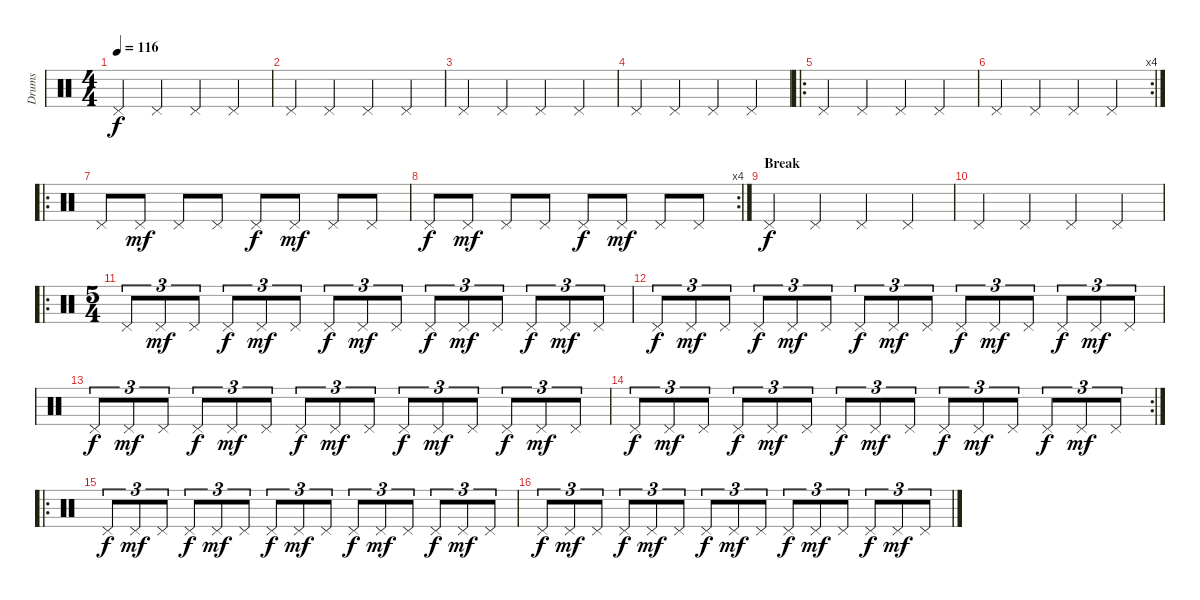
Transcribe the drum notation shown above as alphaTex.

\track ("Drums" "Drums") {instrument percussion}
\staff {score}
\articulation defaults
\ts (4 4)
\tempo 116
\clef neutral
\ks c "Pedal Hi-Hat (hit)".4{dy f} "Pedal Hi-Hat (hit)".4 "Pedal Hi-Hat (hit)".4 "Pedal Hi-Hat (hit)".4
|
"Pedal Hi-Hat (hit)".4 "Pedal Hi-Hat (hit)".4 "Pedal Hi-Hat (hit)".4 "Pedal Hi-Hat (hit)".4 |
"Pedal Hi-Hat (hit)".4 "Pedal Hi-Hat (hit)".4 "Pedal Hi-Hat (hit)".4 "Pedal Hi-Hat (hit)".4 |
"Pedal Hi-Hat (hit)".4 "Pedal Hi-Hat (hit)".4 "Pedal Hi-Hat (hit)".4 "Pedal Hi-Hat (hit)".4 |
\ro "Pedal Hi-Hat (hit)".4 "Pedal Hi-Hat (hit)".4 "Pedal Hi-Hat (hit)".4 "Pedal Hi-Hat (hit)".4
|
\rc 4 "Pedal Hi-Hat (hit)".4 "Pedal Hi-Hat (hit)".4 "Pedal Hi-Hat (hit)".4 "Pedal Hi-Hat (hit)".4
|
\ro "Pedal Hi-Hat (hit)".8 "Pedal Hi-Hat (hit)".8{dy mf} "Pedal Hi-Hat (hit)".8 "Pedal Hi-Hat (hit)".8 "Pedal Hi-Hat (hit)".8{dy f} "Pedal Hi-Hat (hit)".8{dy mf} "Pedal Hi-Hat (hit)".8 "Pedal Hi-Hat (hit)".8
|
\rc 4 "Pedal Hi-Hat (hit)".8{dy f} "Pedal Hi-Hat (hit)".8{dy mf} "Pedal Hi-Hat (hit)".8 "Pedal Hi-Hat (hit)".8 "Pedal Hi-Hat (hit)".8{dy f} "Pedal Hi-Hat (hit)".8{dy mf} "Pedal Hi-Hat (hit)".8 "Pedal Hi-Hat (hit)".8
|
\section ("" "Break ")
"Pedal Hi-Hat (hit)".4{dy f} "Pedal Hi-Hat (hit)".4 "Pedal Hi-Hat (hit)".4 "Pedal Hi-Hat (hit)".4 |
"Pedal Hi-Hat (hit)".4 "Pedal Hi-Hat (hit)".4 "Pedal Hi-Hat (hit)".4 "Pedal Hi-Hat (hit)".4 |
\ro
\ts (5 4)
"Pedal Hi-Hat (hit)".8{tu (3 2)} "Pedal Hi-Hat (hit)".8{tu (3 2) dy mf} "Pedal Hi-Hat (hit)".8{tu (3 2)} "Pedal Hi-Hat (hit)".8{tu (3 2) dy f} "Pedal Hi-Hat (hit)".8{tu (3 2) dy mf} "Pedal Hi-Hat (hit)".8{tu (3 2)} "Pedal Hi-Hat (hit)".8{tu (3 2) dy f} "Pedal Hi-Hat (hit)".8{tu (3 2) dy mf} "Pedal Hi-Hat (hit)".8{tu (3 2)} "Pedal Hi-Hat (hit)".8{tu (3 2) dy f} "Pedal Hi-Hat (hit)".8{tu (3 2) dy mf} "Pedal Hi-Hat (hit)".8{tu (3 2)} "Pedal Hi-Hat (hit)".8{tu (3 2) dy f} "Pedal Hi-Hat (hit)".8{tu (3 2) dy mf} "Pedal Hi-Hat (hit)".8{tu (3 2)} |
"Pedal Hi-Hat (hit)".8{tu (3 2) dy f} "Pedal Hi-Hat (hit)".8{tu (3 2) dy mf} "Pedal Hi-Hat (hit)".8{tu (3 2)} "Pedal Hi-Hat (hit)".8{tu (3 2) dy f} "Pedal Hi-Hat (hit)".8{tu (3 2) dy mf} "Pedal Hi-Hat (hit)".8{tu (3 2)} "Pedal Hi-Hat (hit)".8{tu (3 2) dy f} "Pedal Hi-Hat (hit)".8{tu (3 2) dy mf} "Pedal Hi-Hat (hit)".8{tu (3 2)} "Pedal Hi-Hat (hit)".8{tu (3 2) dy f} "Pedal Hi-Hat (hit)".8{tu (3 2) dy mf} "Pedal Hi-Hat (hit)".8{tu (3 2)} "Pedal Hi-Hat (hit)".8{tu (3 2) dy f} "Pedal Hi-Hat (hit)".8{tu (3 2) dy mf} "Pedal Hi-Hat (hit)".8{tu (3 2)} |
"Pedal Hi-Hat (hit)".8{tu (3 2) dy f} "Pedal Hi-Hat (hit)".8{tu (3 2) dy mf} "Pedal Hi-Hat (hit)".8{tu (3 2)} "Pedal Hi-Hat (hit)".8{tu (3 2) dy f} "Pedal Hi-Hat (hit)".8{tu (3 2) dy mf} "Pedal Hi-Hat (hit)".8{tu (3 2)} "Pedal Hi-Hat (hit)".8{tu (3 2) dy f} "Pedal Hi-Hat (hit)".8{tu (3 2) dy mf} "Pedal Hi-Hat (hit)".8{tu (3 2)} "Pedal Hi-Hat (hit)".8{tu (3 2) dy f} "Pedal Hi-Hat (hit)".8{tu (3 2) dy mf} "Pedal Hi-Hat (hit)".8{tu (3 2)} "Pedal Hi-Hat (hit)".8{tu (3 2) dy f} "Pedal Hi-Hat (hit)".8{tu (3 2) dy mf} "Pedal Hi-Hat (hit)".8{tu (3 2)} |
\rc 2 "Pedal Hi-Hat (hit)".8{tu (3 2) dy f} "Pedal Hi-Hat (hit)".8{tu (3 2) dy mf} "Pedal Hi-Hat (hit)".8{tu (3 2)} "Pedal Hi-Hat (hit)".8{tu (3 2) dy f} "Pedal Hi-Hat (hit)".8{tu (3 2) dy mf} "Pedal Hi-Hat (hit)".8{tu (3 2)} "Pedal Hi-Hat (hit)".8{tu (3 2) dy f} "Pedal Hi-Hat (hit)".8{tu (3 2) dy mf} "Pedal Hi-Hat (hit)".8{tu (3 2)} "Pedal Hi-Hat (hit)".8{tu (3 2) dy f} "Pedal Hi-Hat (hit)".8{tu (3 2) dy mf} "Pedal Hi-Hat (hit)".8{tu (3 2)} "Pedal Hi-Hat (hit)".8{tu (3 2) dy f} "Pedal Hi-Hat (hit)".8{tu (3 2) dy mf} "Pedal Hi-Hat (hit)".8{tu (3 2)}
|
\ro "Pedal Hi-Hat (hit)".8{tu (3 2) dy f} "Pedal Hi-Hat (hit)".8{tu (3 2) dy mf} "Pedal Hi-Hat (hit)".8{tu (3 2)} "Pedal Hi-Hat (hit)".8{tu (3 2) dy f} "Pedal Hi-Hat (hit)".8{tu (3 2) dy mf} "Pedal Hi-Hat (hit)".8{tu (3 2)} "Pedal Hi-Hat (hit)".8{tu (3 2) dy f} "Pedal Hi-Hat (hit)".8{tu (3 2) dy mf} "Pedal Hi-Hat (hit)".8{tu (3 2)} "Pedal Hi-Hat (hit)".8{tu (3 2) dy f} "Pedal Hi-Hat (hit)".8{tu (3 2) dy mf} "Pedal Hi-Hat (hit)".8{tu (3 2)} "Pedal Hi-Hat (hit)".8{tu (3 2) dy f} "Pedal Hi-Hat (hit)".8{tu (3 2) dy mf} "Pedal Hi-Hat (hit)".8{tu (3 2)}
|
"Pedal Hi-Hat (hit)".8{tu (3 2) dy f} "Pedal Hi-Hat (hit)".8{tu (3 2) dy mf} "Pedal Hi-Hat (hit)".8{tu (3 2)} "Pedal Hi-Hat (hit)".8{tu (3 2) dy f} "Pedal Hi-Hat (hit)".8{tu (3 2) dy mf} "Pedal Hi-Hat (hit)".8{tu (3 2)} "Pedal Hi-Hat (hit)".8{tu (3 2) dy f} "Pedal Hi-Hat (hit)".8{tu (3 2) dy mf} "Pedal Hi-Hat (hit)".8{tu (3 2)} "Pedal Hi-Hat (hit)".8{tu (3 2) dy f} "Pedal Hi-Hat (hit)".8{tu (3 2) dy mf} "Pedal Hi-Hat (hit)".8{tu (3 2)} "Pedal Hi-Hat (hit)".8{tu (3 2) dy f} "Pedal Hi-Hat (hit)".8{tu (3 2) dy mf} "Pedal Hi-Hat (hit)".8{tu (3 2)}
